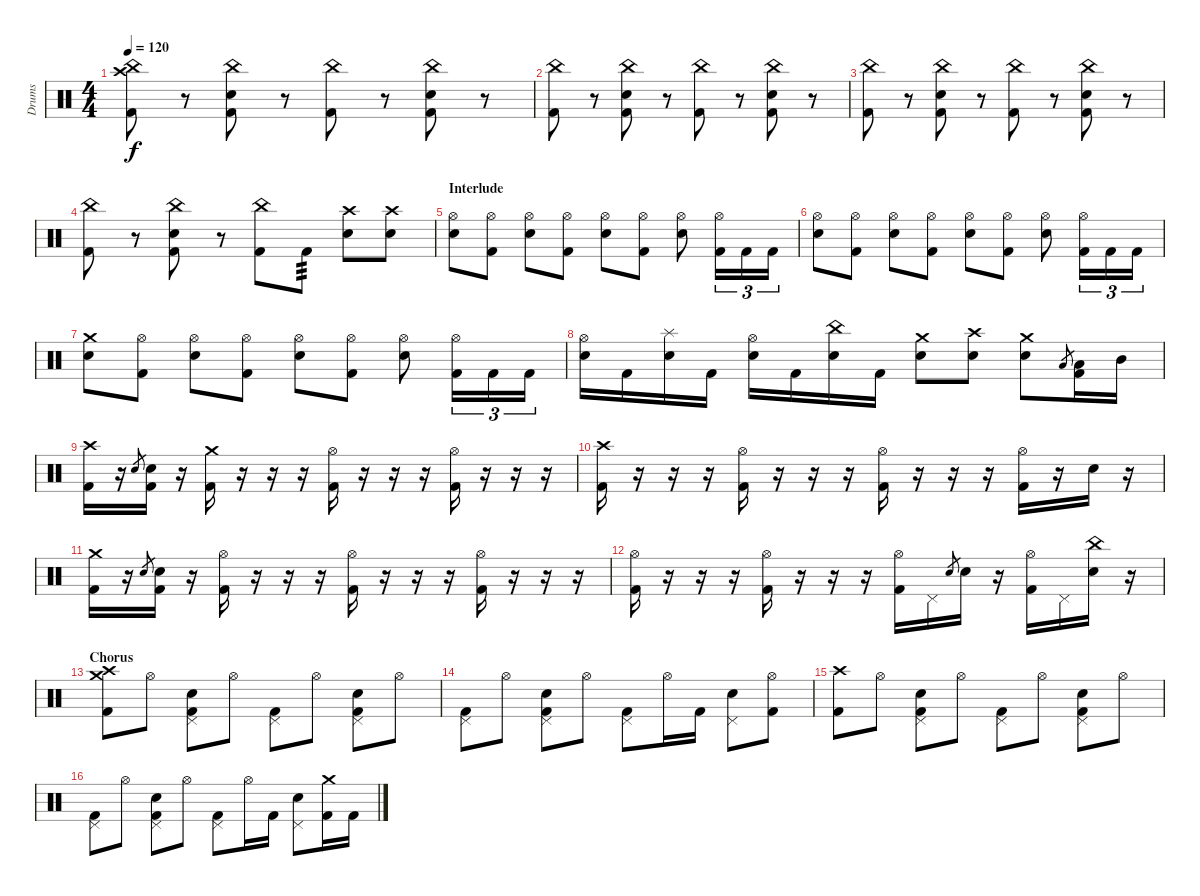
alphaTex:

\track ("Drums" "Drums") {instrument percussion}
\staff {score}
\articulation defaults
\ts (4 4)
\tempo 120
\clef neutral
\ks c
("China (hit)" "Crash high (hit)" "Kick (hit) 2").8{dy f} r.8 ("China (hit)" "Electric Snare (hit)" "Kick (hit) 2").8 r.8 ("China (hit)" "Kick (hit) 2").8 r.8 ("China (hit)" "Electric Snare (hit)" "Kick (hit) 2").8 r.8 |
("China (hit)" "Kick (hit) 2").8 r.8 ("China (hit)" "Electric Snare (hit)" "Kick (hit) 2").8 r.8 ("China (hit)" "Kick (hit) 2").8 r.8 ("China (hit)" "Electric Snare (hit)" "Kick (hit) 2").8 r.8 |
("China (hit)" "Kick (hit) 2").8 r.8 ("China (hit)" "Electric Snare (hit)" "Kick (hit) 2").8 r.8 ("China (hit)" "Kick (hit) 2").8 r.8 ("China (hit)" "Electric Snare (hit)" "Kick (hit) 2").8 r.8 |
("China (hit)" "Kick (hit) 2").8 r.8 ("China (hit)" "Electric Snare (hit)" "Kick (hit) 2").8 r.8 ("China (hit)" "Kick (hit) 2").8 "Kick (hit) 2".8{tp 3} ("Crash high (hit)" "Electric Snare (hit)").8 ("Crash high (hit)" "Electric Snare (hit)").8 |
\section ("" "Interlude")
("Hi-Hat (open)" "Electric Snare (hit)").8 ("Hi-Hat (open)" "Kick (hit) 2").8 ("Hi-Hat (open)" "Electric Snare (hit)").8 ("Hi-Hat (open)" "Kick (hit) 2").8 ("Hi-Hat (open)" "Electric Snare (hit)").8 ("Hi-Hat (open)" "Kick (hit) 2").8 ("Hi-Hat (open)" "Electric Snare (hit)").8 ("Hi-Hat (open)" "Kick (hit) 2").16{tu (3 2)} "Kick (hit) 2".16{tu (3 2)} "Kick (hit) 2".16{tu (3 2)} |
("Hi-Hat (open)" "Electric Snare (hit)").8 ("Hi-Hat (open)" "Kick (hit) 2").8 ("Hi-Hat (open)" "Electric Snare (hit)").8 ("Hi-Hat (open)" "Kick (hit) 2").8 ("Hi-Hat (open)" "Electric Snare (hit)").8 ("Hi-Hat (open)" "Kick (hit) 2").8 ("Hi-Hat (open)" "Electric Snare (hit)").8 ("Hi-Hat (open)" "Kick (hit) 2").16{tu (3 2)} "Kick (hit) 2".16{tu (3 2)} "Kick (hit) 2".16{tu (3 2)} |
("Crash medium (hit)" "Electric Snare (hit)").8 ("Hi-Hat (open)" "Kick (hit) 2").8 ("Hi-Hat (open)" "Electric Snare (hit)").8 ("Hi-Hat (open)" "Kick (hit) 2").8 ("Hi-Hat (open)" "Electric Snare (hit)").8 ("Hi-Hat (open)" "Kick (hit) 2").8 ("Hi-Hat (open)" "Electric Snare (hit)").8 ("Hi-Hat (open)" "Kick (hit) 2").16{tu (3 2)} "Kick (hit) 2".16{tu (3 2)} "Kick (hit) 2".16{tu (3 2)} |
("Hi-Hat (open)" "Electric Snare (hit)").16 "Kick (hit) 2".16 ("Splash (hit)" "Electric Snare (hit)").16 "Kick (hit) 2".16 ("Hi-Hat (open)" "Electric Snare (hit)").16 "Kick (hit) 2".16 ("China (hit)" "Electric Snare (hit)").16 "Kick (hit) 2".16 ("Crash medium (hit)" "Electric Snare (hit)").8 ("Crash high (hit)" "Electric Snare (hit)").8 ("Crash medium (hit)" "Electric Snare (hit)").8 "Low Tom (hit)".8{gr} ("Low Tom (hit)" "Kick (hit) 2").16 "Mid Tom (hit)".16 |
("Crash high (hit)" "Kick (hit) 2").16 r.16 "Electric Snare (hit)".8{gr} ("Electric Snare (hit)" "Kick (hit) 2").16 r.16 ("Crash medium (hit)" "Kick (hit) 2").16 r.16 r.16 r.16 ("Hi-Hat (open)" "Kick (hit) 2").16 r.16 r.16 r.16 ("Hi-Hat (open)" "Kick (hit) 2").16 r.16 r.16 r.16 |
("Crash high (hit)" "Kick (hit) 2").16 r.16 r.16 r.16 ("Hi-Hat (open)" "Kick (hit) 2").16 r.16 r.16 r.16 ("Hi-Hat (open)" "Kick (hit) 2").16 r.16 r.16 r.16 ("Hi-Hat (open)" "Kick (hit) 2").16 r.16 "Electric Snare (hit)".16 r.16 |
("Crash medium (hit)" "Kick (hit) 2").16 r.16 "Electric Snare (hit)".8{gr} ("Electric Snare (hit)" "Kick (hit) 2").16 r.16 ("Hi-Hat (open)" "Kick (hit) 2").16 r.16 r.16 r.16 ("Hi-Hat (open)" "Kick (hit) 2").16 r.16 r.16 r.16 ("Hi-Hat (open)" "Kick (hit) 2").16 r.16 r.16 r.16 |
("Hi-Hat (open)" "Kick (hit) 2").16 r.16 r.16 r.16 ("Hi-Hat (open)" "Kick (hit) 2").16 r.16 r.16 r.16 ("Hi-Hat (open)" "Kick (hit) 2").16 "Pedal Hi-Hat (hit)".16 "Electric Snare (hit)".8{gr} "Electric Snare (hit)".16 r.16 ("Hi-Hat (open)" "Kick (hit) 2").16 "Pedal Hi-Hat (hit)".16 ("China (hit)" "Electric Snare (hit)").16 r.16 |
\section ("" "Chorus")
("Crash high (hit)" "Crash medium (hit)" "Kick (hit) 2").8 "Hi-Hat (open)".8 ("Pedal Hi-Hat (hit)" "Electric Snare (hit)" "Kick (hit) 2").8 "Hi-Hat (open)".8 ("Pedal Hi-Hat (hit)" "Kick (hit) 2").8 "Hi-Hat (open)".8 ("Pedal Hi-Hat (hit)" "Electric Snare (hit)" "Kick (hit) 2").8 "Hi-Hat (open)".8 |
("Pedal Hi-Hat (hit)" "Kick (hit) 2").8 "Hi-Hat (open)".8 ("Pedal Hi-Hat (hit)" "Electric Snare (hit)" "Kick (hit) 2").8 "Hi-Hat (open)".8 ("Pedal Hi-Hat (hit)" "Kick (hit) 2").8 "Hi-Hat (open)".16 "Kick (hit) 2".16 ("Pedal Hi-Hat (hit)" "Electric Snare (hit)").8 ("Hi-Hat (open)" "Kick (hit) 2").8 |
("Crash high (hit)" "Kick (hit) 2").8 "Hi-Hat (open)".8 ("Pedal Hi-Hat (hit)" "Electric Snare (hit)" "Kick (hit) 2").8 "Hi-Hat (open)".8 ("Pedal Hi-Hat (hit)" "Kick (hit) 2").8 "Hi-Hat (open)".8 ("Pedal Hi-Hat (hit)" "Electric Snare (hit)" "Kick (hit) 2").8 "Hi-Hat (open)".8 |
("Pedal Hi-Hat (hit)" "Kick (hit) 2").8 "Hi-Hat (open)".8 ("Pedal Hi-Hat (hit)" "Electric Snare (hit)" "Kick (hit) 2").8 "Hi-Hat (open)".8 ("Pedal Hi-Hat (hit)" "Kick (hit) 2").8 "Hi-Hat (open)".16 "Kick (hit) 2".16 ("Pedal Hi-Hat (hit)" "Electric Snare (hit)").8 ("Crash medium (hit)" "Kick (hit) 2").16 "Kick (hit) 2".16
